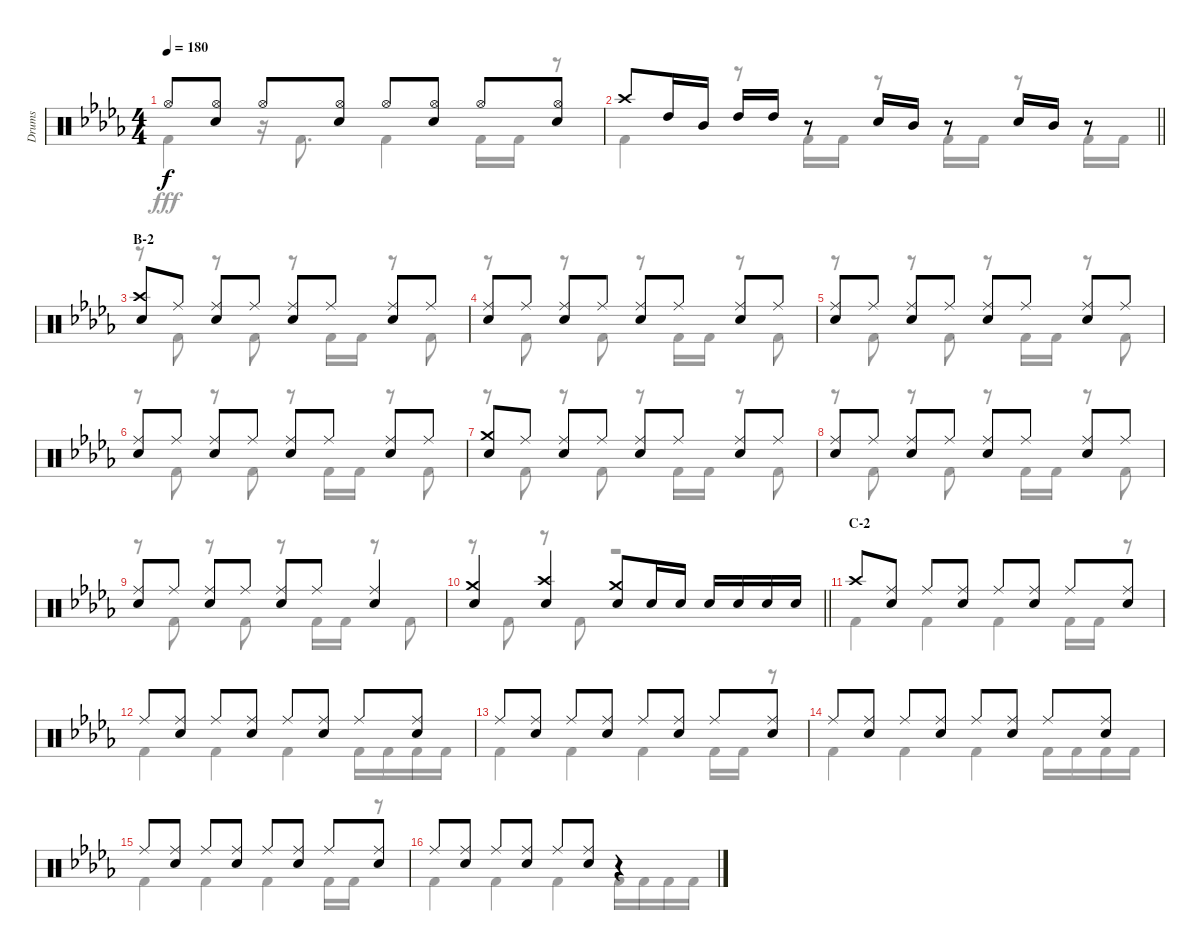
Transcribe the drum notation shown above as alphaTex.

\track ("Drums" "Drums") {instrument percussion}
\staff {score}
\articulation defaults
\voice
\ts (4 4)
\tempo 180
\clef neutral
\ks db "Hi-Hat (open)".8{dy f}
("Hi-Hat (open)" "Snare (hit) 2").8 "Hi-Hat (open)".8 ("Hi-Hat (open)" "Snare (hit) 2").8 "Hi-Hat (open)".8 ("Hi-Hat (open)" "Snare (hit) 2").8 "Hi-Hat (open)".8 ("Hi-Hat (open)" "Snare (hit) 2").8 |
\barLineRight lightlight "Crash high (hit)".8 "High Tom (hit)".16 "Mid Tom (hit)".16 "High Tom (hit)".16 "High Tom (hit)".16
r.8 "Snare (hit) 2".16 "Mid Tom (hit)".16 r.8 "Snare (hit) 2".16 "Mid Tom (hit)".16 r.8 |
\section ("" "B-2")
("Crash high (hit)" "Snare (hit) 2").8 "Ride (middle)".8 ("Ride (middle)" "Snare (hit) 2").8 "Ride (middle)".8 ("Ride (middle)" "Snare (hit) 2").8 "Ride (middle)".8 ("Ride (middle)" "Snare (hit) 2").8 "Ride (middle)".8 |
("Ride (middle)" "Snare (hit) 2").8 "Ride (middle)".8 ("Ride (middle)" "Snare (hit) 2").8 "Ride (middle)".8 ("Ride (middle)" "Snare (hit) 2").8 "Ride (middle)".8 ("Ride (middle)" "Snare (hit) 2").8 "Ride (middle)".8 |
("Ride (middle)" "Snare (hit) 2").8 "Ride (middle)".8 ("Ride (middle)" "Snare (hit) 2").8 "Ride (middle)".8 ("Ride (middle)" "Snare (hit) 2").8 "Ride (middle)".8 ("Ride (middle)" "Snare (hit) 2").8 "Ride (middle)".8 |
("Ride (middle)" "Snare (hit) 2").8 "Ride (middle)".8 ("Ride (middle)" "Snare (hit) 2").8 "Ride (middle)".8 ("Ride (middle)" "Snare (hit) 2").8 "Ride (middle)".8 ("Ride (middle)" "Snare (hit) 2").8 "Ride (middle)".8 |
("Crash medium (hit)" "Snare (hit) 2").8 "Ride (middle)".8 ("Ride (middle)" "Snare (hit) 2").8 "Ride (middle)".8 ("Ride (middle)" "Snare (hit) 2").8 "Ride (middle)".8 ("Ride (middle)" "Snare (hit) 2").8 "Ride (middle)".8 |
("Ride (middle)" "Snare (hit) 2").8 "Ride (middle)".8 ("Ride (middle)" "Snare (hit) 2").8 "Ride (middle)".8 ("Ride (middle)" "Snare (hit) 2").8 "Ride (middle)".8 ("Ride (middle)" "Snare (hit) 2").8 "Ride (middle)".8 |
("Ride (middle)" "Snare (hit) 2").8 "Ride (middle)".8 ("Ride (middle)" "Snare (hit) 2").8 "Ride (middle)".8 ("Ride (middle)" "Snare (hit) 2").8 "Ride (middle)".8 ("Ride (middle)" "Snare (hit) 2").4 |
\barLineRight lightlight
("Crash medium (hit)" "Snare (hit) 2").4 ("Crash high (hit)" "Snare (hit) 2").4 ("Crash medium (hit)" "Snare (hit) 2").8 "Snare (hit) 2".16 "Snare (hit) 2".16 "Snare (hit) 2".16 "Snare (hit) 2".16 "Snare (hit) 2".16 "Snare (hit) 2".16 |
\section ("" "C-2")
"Crash high (hit)".8 ("Ride (middle)" "Snare (hit) 2").8 "Ride (middle)".8 ("Ride (middle)" "Snare (hit) 2").8 "Ride (middle)".8 ("Ride (middle)" "Snare (hit) 2").8 "Ride (middle)".8 ("Ride (middle)" "Snare (hit) 2").8 |
"Ride (middle)".8 ("Ride (middle)" "Snare (hit) 2").8 "Ride (middle)".8 ("Ride (middle)" "Snare (hit) 2").8 "Ride (middle)".8 ("Ride (middle)" "Snare (hit) 2").8 "Ride (middle)".8 ("Ride (middle)" "Snare (hit) 2").8 |
"Ride (middle)".8 ("Ride (middle)" "Snare (hit) 2").8 "Ride (middle)".8 ("Ride (middle)" "Snare (hit) 2").8 "Ride (middle)".8 ("Ride (middle)" "Snare (hit) 2").8 "Ride (middle)".8 ("Ride (middle)" "Snare (hit) 2").8 |
"Ride (middle)".8 ("Ride (middle)" "Snare (hit) 2").8 "Ride (middle)".8 ("Ride (middle)" "Snare (hit) 2").8 "Ride (middle)".8 ("Ride (middle)" "Snare (hit) 2").8 "Ride (middle)".8 ("Ride (middle)" "Snare (hit) 2").8 |
"Ride (middle)".8 ("Ride (middle)" "Snare (hit) 2").8 "Ride (middle)".8 ("Ride (middle)" "Snare (hit) 2").8 "Ride (middle)".8 ("Ride (middle)" "Snare (hit) 2").8 "Ride (middle)".8 ("Ride (middle)" "Snare (hit) 2").8 |
"Ride (middle)".8 ("Ride (middle)" "Snare (hit) 2").8 "Ride (middle)".8 ("Ride (middle)" "Snare (hit) 2").8 "Ride (middle)".8 ("Ride (middle)" "Snare (hit) 2").8 r.4
\voice
\clef neutral
\ottava regular
\simile none
\ks db "Kick (hit) 2".4{dy fff}
r.16 "Kick (hit) 2".8{d} "Kick (hit) 2".4 "Kick (hit) 2".16 "Kick (hit) 2".16 r.8 |
\barLineRight lightlight "Kick (hit) 2".4
r.8 "Kick (hit) 2".16 "Kick (hit) 2".16 r.8 "Kick (hit) 2".16 "Kick (hit) 2".16 r.8 "Kick (hit) 2".16 "Kick (hit) 2".16 |
r.8 "Kick (hit) 2".8 r.8 "Kick (hit) 2".8 r.8 "Kick (hit) 2".16 "Kick (hit) 2".16 r.8 "Kick (hit) 2".8 |
r.8 "Kick (hit) 2".8 r.8 "Kick (hit) 2".8 r.8 "Kick (hit) 2".16 "Kick (hit) 2".16 r.8 "Kick (hit) 2".8 |
r.8 "Kick (hit) 2".8 r.8 "Kick (hit) 2".8 r.8 "Kick (hit) 2".16 "Kick (hit) 2".16 r.8 "Kick (hit) 2".8 |
r.8 "Kick (hit) 2".8 r.8 "Kick (hit) 2".8 r.8 "Kick (hit) 2".16 "Kick (hit) 2".16 r.8 "Kick (hit) 2".8 |
r.8 "Kick (hit) 2".8 r.8 "Kick (hit) 2".8 r.8 "Kick (hit) 2".16 "Kick (hit) 2".16 r.8 "Kick (hit) 2".8 |
r.8 "Kick (hit) 2".8 r.8 "Kick (hit) 2".8 r.8 "Kick (hit) 2".16 "Kick (hit) 2".16 r.8 "Kick (hit) 2".8 |
r.8 "Kick (hit) 2".8 r.8 "Kick (hit) 2".8 r.8 "Kick (hit) 2".16 "Kick (hit) 2".16 r.8 "Kick (hit) 2".8 |
\barLineRight lightlight
r.8 "Kick (hit) 2".8 r.8 "Kick (hit) 2".8 r.2 |
"Kick (hit) 2".4 "Kick (hit) 2".4 "Kick (hit) 2".4 "Kick (hit) 2".16 "Kick (hit) 2".16 r.8 |
"Kick (hit) 2".4 "Kick (hit) 2".4 "Kick (hit) 2".4 "Kick (hit) 2".16 "Kick (hit) 2".16 "Kick (hit) 2".16 "Kick (hit) 2".16 |
"Kick (hit) 2".4 "Kick (hit) 2".4 "Kick (hit) 2".4 "Kick (hit) 2".16 "Kick (hit) 2".16 r.8 |
"Kick (hit) 2".4 "Kick (hit) 2".4 "Kick (hit) 2".4 "Kick (hit) 2".16 "Kick (hit) 2".16 "Kick (hit) 2".16 "Kick (hit) 2".16 |
"Kick (hit) 2".4 "Kick (hit) 2".4 "Kick (hit) 2".4 "Kick (hit) 2".16 "Kick (hit) 2".16 r.8 |
"Kick (hit) 2".4 "Kick (hit) 2".4 "Kick (hit) 2".4 "Kick (hit) 2".16 "Kick (hit) 2".16 "Kick (hit) 2".16 "Kick (hit) 2".16
